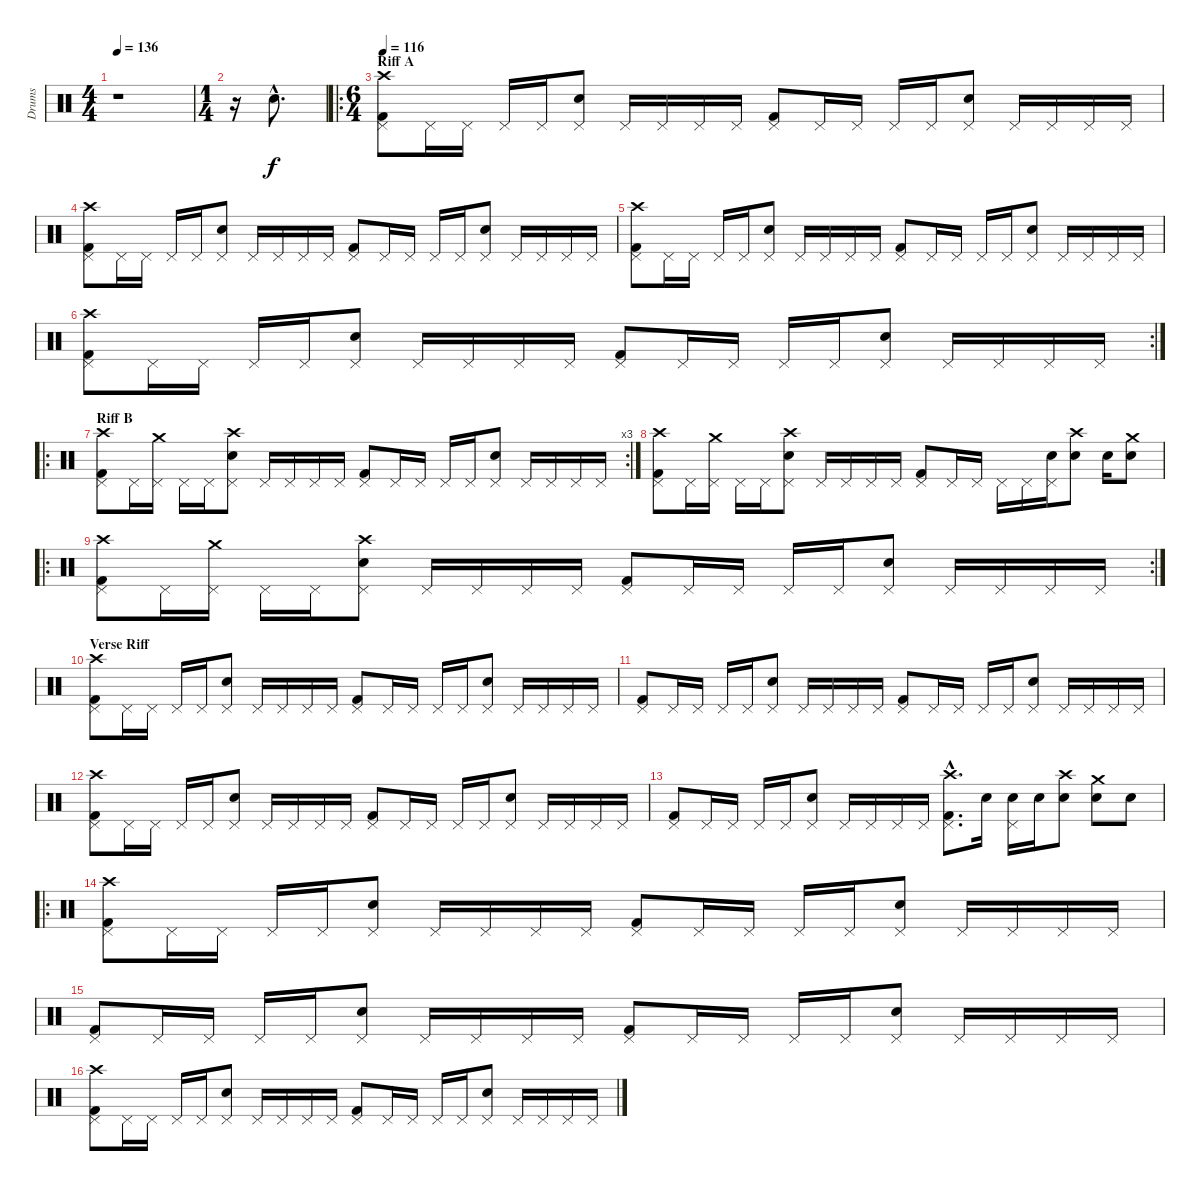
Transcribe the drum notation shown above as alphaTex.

\track ("Drums" "Drums") {instrument percussion}
\staff {score}
\articulation defaults
\ts (4 4)
\tempo 136
\clef neutral
\ks c
r.1{dy f} |
\ts (1 4)
r.16 "Snare (hit) 2"{hac}.8{d} |
\ro
\ts (6 4)
\section ("" "Riff A")
\tempo 116
("Kick (hit) 2" "Pedal Hi-Hat (hit)" "Crash high (hit)").8 "Pedal Hi-Hat (hit)".16 "Pedal Hi-Hat (hit)".16 "Pedal Hi-Hat (hit)".16 "Pedal Hi-Hat (hit)".16 ("Snare (hit) 2" "Pedal Hi-Hat (hit)").8 "Pedal Hi-Hat (hit)".16 "Pedal Hi-Hat (hit)".16 "Pedal Hi-Hat (hit)".16 "Pedal Hi-Hat (hit)".16 ("Kick (hit) 2" "Pedal Hi-Hat (hit)").8 "Pedal Hi-Hat (hit)".16 "Pedal Hi-Hat (hit)".16 "Pedal Hi-Hat (hit)".16 "Pedal Hi-Hat (hit)".16 ("Snare (hit) 2" "Pedal Hi-Hat (hit)").8 "Pedal Hi-Hat (hit)".16 "Pedal Hi-Hat (hit)".16 "Pedal Hi-Hat (hit)".16 "Pedal Hi-Hat (hit)".16 |
("Kick (hit) 2" "Pedal Hi-Hat (hit)" "Crash high (hit)").8 "Pedal Hi-Hat (hit)".16 "Pedal Hi-Hat (hit)".16 "Pedal Hi-Hat (hit)".16 "Pedal Hi-Hat (hit)".16 ("Snare (hit) 2" "Pedal Hi-Hat (hit)").8 "Pedal Hi-Hat (hit)".16 "Pedal Hi-Hat (hit)".16 "Pedal Hi-Hat (hit)".16 "Pedal Hi-Hat (hit)".16 ("Kick (hit) 2" "Pedal Hi-Hat (hit)").8 "Pedal Hi-Hat (hit)".16 "Pedal Hi-Hat (hit)".16 "Pedal Hi-Hat (hit)".16 "Pedal Hi-Hat (hit)".16 ("Snare (hit) 2" "Pedal Hi-Hat (hit)").8 "Pedal Hi-Hat (hit)".16 "Pedal Hi-Hat (hit)".16 "Pedal Hi-Hat (hit)".16 "Pedal Hi-Hat (hit)".16 |
("Kick (hit) 2" "Pedal Hi-Hat (hit)" "Crash high (hit)").8 "Pedal Hi-Hat (hit)".16 "Pedal Hi-Hat (hit)".16 "Pedal Hi-Hat (hit)".16 "Pedal Hi-Hat (hit)".16 ("Snare (hit) 2" "Pedal Hi-Hat (hit)").8 "Pedal Hi-Hat (hit)".16 "Pedal Hi-Hat (hit)".16 "Pedal Hi-Hat (hit)".16 "Pedal Hi-Hat (hit)".16 ("Kick (hit) 2" "Pedal Hi-Hat (hit)").8 "Pedal Hi-Hat (hit)".16 "Pedal Hi-Hat (hit)".16 "Pedal Hi-Hat (hit)".16 "Pedal Hi-Hat (hit)".16 ("Snare (hit) 2" "Pedal Hi-Hat (hit)").8 "Pedal Hi-Hat (hit)".16 "Pedal Hi-Hat (hit)".16 "Pedal Hi-Hat (hit)".16 "Pedal Hi-Hat (hit)".16 |
\rc 2
("Kick (hit) 2" "Pedal Hi-Hat (hit)" "Crash high (hit)").8 "Pedal Hi-Hat (hit)".16 "Pedal Hi-Hat (hit)".16 "Pedal Hi-Hat (hit)".16 "Pedal Hi-Hat (hit)".16 ("Snare (hit) 2" "Pedal Hi-Hat (hit)").8 "Pedal Hi-Hat (hit)".16 "Pedal Hi-Hat (hit)".16 "Pedal Hi-Hat (hit)".16 "Pedal Hi-Hat (hit)".16 ("Kick (hit) 2" "Pedal Hi-Hat (hit)").8 "Pedal Hi-Hat (hit)".16 "Pedal Hi-Hat (hit)".16 "Pedal Hi-Hat (hit)".16 "Pedal Hi-Hat (hit)".16 ("Snare (hit) 2" "Pedal Hi-Hat (hit)").8 "Pedal Hi-Hat (hit)".16 "Pedal Hi-Hat (hit)".16 "Pedal Hi-Hat (hit)".16 "Pedal Hi-Hat (hit)".16 |
\ro
\rc 3
\section ("" "Riff B")
("Kick (hit) 2" "Pedal Hi-Hat (hit)" "Crash high (hit)").8 "Pedal Hi-Hat (hit)".16 ("Pedal Hi-Hat (hit)" "Crash medium (hit)").16 "Pedal Hi-Hat (hit)".16 "Pedal Hi-Hat (hit)".16 ("Snare (hit) 2" "Pedal Hi-Hat (hit)" "Crash high (hit)").8 "Pedal Hi-Hat (hit)".16 "Pedal Hi-Hat (hit)".16 "Pedal Hi-Hat (hit)".16 "Pedal Hi-Hat (hit)".16 ("Kick (hit) 2" "Pedal Hi-Hat (hit)").8 "Pedal Hi-Hat (hit)".16 "Pedal Hi-Hat (hit)".16 "Pedal Hi-Hat (hit)".16 "Pedal Hi-Hat (hit)".16 ("Snare (hit) 2" "Pedal Hi-Hat (hit)").8 "Pedal Hi-Hat (hit)".16 "Pedal Hi-Hat (hit)".16 "Pedal Hi-Hat (hit)".16 "Pedal Hi-Hat (hit)".16 |
("Kick (hit) 2" "Pedal Hi-Hat (hit)" "Crash high (hit)").8 "Pedal Hi-Hat (hit)".16 ("Pedal Hi-Hat (hit)" "Crash medium (hit)").16 "Pedal Hi-Hat (hit)".16 "Pedal Hi-Hat (hit)".16 ("Snare (hit) 2" "Pedal Hi-Hat (hit)" "Crash high (hit)").8 "Pedal Hi-Hat (hit)".16 "Pedal Hi-Hat (hit)".16 "Pedal Hi-Hat (hit)".16 "Pedal Hi-Hat (hit)".16 ("Kick (hit) 2" "Pedal Hi-Hat (hit)").8 "Pedal Hi-Hat (hit)".16 "Pedal Hi-Hat (hit)".16 "Pedal Hi-Hat (hit)".16 "Pedal Hi-Hat (hit)".16 ("Snare (hit) 2" "Pedal Hi-Hat (hit)").16 ("Snare (hit) 2" "Crash high (hit)").8 "Snare (hit) 2".16 ("Snare (hit) 2" "Crash medium (hit)").8 |
\ro
\rc 2
("Kick (hit) 2" "Pedal Hi-Hat (hit)" "Crash high (hit)").8 "Pedal Hi-Hat (hit)".16 ("Pedal Hi-Hat (hit)" "Crash medium (hit)").16 "Pedal Hi-Hat (hit)".16 "Pedal Hi-Hat (hit)".16 ("Snare (hit) 2" "Pedal Hi-Hat (hit)" "Crash high (hit)").8 "Pedal Hi-Hat (hit)".16 "Pedal Hi-Hat (hit)".16 "Pedal Hi-Hat (hit)".16 "Pedal Hi-Hat (hit)".16 ("Kick (hit) 2" "Pedal Hi-Hat (hit)").8 "Pedal Hi-Hat (hit)".16 "Pedal Hi-Hat (hit)".16 "Pedal Hi-Hat (hit)".16 "Pedal Hi-Hat (hit)".16 ("Snare (hit) 2" "Pedal Hi-Hat (hit)").8 "Pedal Hi-Hat (hit)".16 "Pedal Hi-Hat (hit)".16 "Pedal Hi-Hat (hit)".16 "Pedal Hi-Hat (hit)".16 |
\section ("" "Verse Riff")
("Kick (hit) 2" "Pedal Hi-Hat (hit)" "Crash high (hit)").8 "Pedal Hi-Hat (hit)".16 "Pedal Hi-Hat (hit)".16 "Pedal Hi-Hat (hit)".16 "Pedal Hi-Hat (hit)".16 ("Snare (hit) 2" "Pedal Hi-Hat (hit)").8 "Pedal Hi-Hat (hit)".16 "Pedal Hi-Hat (hit)".16 "Pedal Hi-Hat (hit)".16 "Pedal Hi-Hat (hit)".16 ("Kick (hit) 2" "Pedal Hi-Hat (hit)").8 "Pedal Hi-Hat (hit)".16 "Pedal Hi-Hat (hit)".16 "Pedal Hi-Hat (hit)".16 "Pedal Hi-Hat (hit)".16 ("Snare (hit) 2" "Pedal Hi-Hat (hit)").8 "Pedal Hi-Hat (hit)".16 "Pedal Hi-Hat (hit)".16 "Pedal Hi-Hat (hit)".16 "Pedal Hi-Hat (hit)".16 |
("Kick (hit) 2" "Pedal Hi-Hat (hit)").8 "Pedal Hi-Hat (hit)".16 "Pedal Hi-Hat (hit)".16 "Pedal Hi-Hat (hit)".16 "Pedal Hi-Hat (hit)".16 ("Snare (hit) 2" "Pedal Hi-Hat (hit)").8 "Pedal Hi-Hat (hit)".16 "Pedal Hi-Hat (hit)".16 "Pedal Hi-Hat (hit)".16 "Pedal Hi-Hat (hit)".16 ("Kick (hit) 2" "Pedal Hi-Hat (hit)").8 "Pedal Hi-Hat (hit)".16 "Pedal Hi-Hat (hit)".16 "Pedal Hi-Hat (hit)".16 "Pedal Hi-Hat (hit)".16 ("Snare (hit) 2" "Pedal Hi-Hat (hit)").8 "Pedal Hi-Hat (hit)".16 "Pedal Hi-Hat (hit)".16 "Pedal Hi-Hat (hit)".16 "Pedal Hi-Hat (hit)".16 |
("Kick (hit) 2" "Pedal Hi-Hat (hit)" "Crash high (hit)").8 "Pedal Hi-Hat (hit)".16 "Pedal Hi-Hat (hit)".16 "Pedal Hi-Hat (hit)".16 "Pedal Hi-Hat (hit)".16 ("Snare (hit) 2" "Pedal Hi-Hat (hit)").8 "Pedal Hi-Hat (hit)".16 "Pedal Hi-Hat (hit)".16 "Pedal Hi-Hat (hit)".16 "Pedal Hi-Hat (hit)".16 ("Kick (hit) 2" "Pedal Hi-Hat (hit)").8 "Pedal Hi-Hat (hit)".16 "Pedal Hi-Hat (hit)".16 "Pedal Hi-Hat (hit)".16 "Pedal Hi-Hat (hit)".16 ("Snare (hit) 2" "Pedal Hi-Hat (hit)").8 "Pedal Hi-Hat (hit)".16 "Pedal Hi-Hat (hit)".16 "Pedal Hi-Hat (hit)".16 "Pedal Hi-Hat (hit)".16 |
("Kick (hit) 2" "Pedal Hi-Hat (hit)").8 "Pedal Hi-Hat (hit)".16 "Pedal Hi-Hat (hit)".16 "Pedal Hi-Hat (hit)".16 "Pedal Hi-Hat (hit)".16 ("Snare (hit) 2" "Pedal Hi-Hat (hit)").8 "Pedal Hi-Hat (hit)".16 "Pedal Hi-Hat (hit)".16 "Pedal Hi-Hat (hit)".16 "Pedal Hi-Hat (hit)".16 ("Kick (hit) 2"{hac} "Pedal Hi-Hat (hit)"{hac} "Crash high (hit)"{hac}).8{d} "Snare (hit) 2".16 ("Snare (hit) 2" "Pedal Hi-Hat (hit)").16 "Snare (hit) 2".16 ("Snare (hit) 2" "Crash high (hit)").8 ("Snare (hit) 2" "Crash medium (hit)").8 "Snare (hit) 2".8 |
\ro
("Kick (hit) 2" "Pedal Hi-Hat (hit)" "Crash high (hit)").8 "Pedal Hi-Hat (hit)".16 "Pedal Hi-Hat (hit)".16 "Pedal Hi-Hat (hit)".16 "Pedal Hi-Hat (hit)".16 ("Snare (hit) 2" "Pedal Hi-Hat (hit)").8 "Pedal Hi-Hat (hit)".16 "Pedal Hi-Hat (hit)".16 "Pedal Hi-Hat (hit)".16 "Pedal Hi-Hat (hit)".16 ("Kick (hit) 2" "Pedal Hi-Hat (hit)").8 "Pedal Hi-Hat (hit)".16 "Pedal Hi-Hat (hit)".16 "Pedal Hi-Hat (hit)".16 "Pedal Hi-Hat (hit)".16 ("Snare (hit) 2" "Pedal Hi-Hat (hit)").8 "Pedal Hi-Hat (hit)".16 "Pedal Hi-Hat (hit)".16 "Pedal Hi-Hat (hit)".16 "Pedal Hi-Hat (hit)".16 |
("Kick (hit) 2" "Pedal Hi-Hat (hit)").8 "Pedal Hi-Hat (hit)".16 "Pedal Hi-Hat (hit)".16 "Pedal Hi-Hat (hit)".16 "Pedal Hi-Hat (hit)".16 ("Snare (hit) 2" "Pedal Hi-Hat (hit)").8 "Pedal Hi-Hat (hit)".16 "Pedal Hi-Hat (hit)".16 "Pedal Hi-Hat (hit)".16 "Pedal Hi-Hat (hit)".16 ("Kick (hit) 2" "Pedal Hi-Hat (hit)").8 "Pedal Hi-Hat (hit)".16 "Pedal Hi-Hat (hit)".16 "Pedal Hi-Hat (hit)".16 "Pedal Hi-Hat (hit)".16 ("Snare (hit) 2" "Pedal Hi-Hat (hit)").8 "Pedal Hi-Hat (hit)".16 "Pedal Hi-Hat (hit)".16 "Pedal Hi-Hat (hit)".16 "Pedal Hi-Hat (hit)".16 |
("Kick (hit) 2" "Pedal Hi-Hat (hit)" "Crash high (hit)").8 "Pedal Hi-Hat (hit)".16 "Pedal Hi-Hat (hit)".16 "Pedal Hi-Hat (hit)".16 "Pedal Hi-Hat (hit)".16 ("Snare (hit) 2" "Pedal Hi-Hat (hit)").8 "Pedal Hi-Hat (hit)".16 "Pedal Hi-Hat (hit)".16 "Pedal Hi-Hat (hit)".16 "Pedal Hi-Hat (hit)".16 ("Kick (hit) 2" "Pedal Hi-Hat (hit)").8 "Pedal Hi-Hat (hit)".16 "Pedal Hi-Hat (hit)".16 "Pedal Hi-Hat (hit)".16 "Pedal Hi-Hat (hit)".16 ("Snare (hit) 2" "Pedal Hi-Hat (hit)").8 "Pedal Hi-Hat (hit)".16 "Pedal Hi-Hat (hit)".16 "Pedal Hi-Hat (hit)".16 "Pedal Hi-Hat (hit)".16
